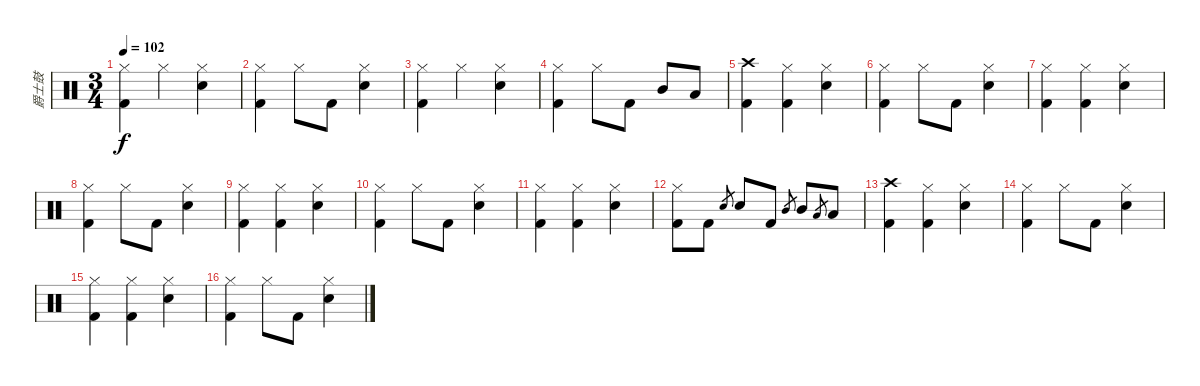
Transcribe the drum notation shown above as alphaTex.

\track ("爵士鼓" "爵士鼓") {instrument percussion}
\staff {score}
\articulation defaults
\ts (3 4)
\tempo 102
\clef neutral
\ks c
("Hi-Hat (closed)" "Kick (hit) 2").4{dy f} "Hi-Hat (closed)".4 ("Hi-Hat (closed)" "Electric Snare (hit)").4 |
("Hi-Hat (closed)" "Kick (hit) 2").4 "Hi-Hat (closed)".8 "Kick (hit) 2".8 ("Hi-Hat (closed)" "Electric Snare (hit)").4 |
("Hi-Hat (closed)" "Kick (hit) 2").4 "Hi-Hat (closed)".4 ("Hi-Hat (closed)" "Electric Snare (hit)").4 |
("Hi-Hat (closed)" "Kick (hit) 2").4 "Hi-Hat (closed)".8 "Kick (hit) 2".8 "Mid Tom (hit)".8 "Low Tom (hit)".8 |
("Crash high (hit)" "Kick (hit) 2").4 ("Hi-Hat (closed)" "Kick (hit) 2").4 ("Hi-Hat (closed)" "Electric Snare (hit)").4 |
("Hi-Hat (closed)" "Kick (hit) 2").4 "Hi-Hat (closed)".8 "Kick (hit) 2".8 ("Hi-Hat (closed)" "Electric Snare (hit)").4 |
("Hi-Hat (closed)" "Kick (hit) 2").4 ("Hi-Hat (closed)" "Kick (hit) 2").4 ("Hi-Hat (closed)" "Electric Snare (hit)").4 |
("Hi-Hat (closed)" "Kick (hit) 2").4 "Hi-Hat (closed)".8 "Kick (hit) 2".8 ("Hi-Hat (closed)" "Electric Snare (hit)").4 |
("Hi-Hat (closed)" "Kick (hit) 2").4 ("Hi-Hat (closed)" "Kick (hit) 2").4 ("Hi-Hat (closed)" "Electric Snare (hit)").4 |
("Hi-Hat (closed)" "Kick (hit) 2").4 "Hi-Hat (closed)".8 "Kick (hit) 2".8 ("Hi-Hat (closed)" "Electric Snare (hit)").4 |
("Hi-Hat (closed)" "Kick (hit) 2").4 ("Hi-Hat (closed)" "Kick (hit) 2").4 ("Hi-Hat (closed)" "Electric Snare (hit)").4 |
("Hi-Hat (closed)" "Kick (hit) 2").8 "Kick (hit) 2".8 "Electric Snare (hit)".8{gr} "Electric Snare (hit)".8 "Kick (hit) 2".8 "Mid Tom (hit)".8{gr} "Mid Tom (hit)".8 "Low Tom (hit)".8{gr} "Low Tom (hit)".8 |
("Crash high (hit)" "Kick (hit) 2").4 ("Hi-Hat (closed)" "Kick (hit) 2").4 ("Hi-Hat (closed)" "Electric Snare (hit)").4 |
("Hi-Hat (closed)" "Kick (hit) 2").4 "Hi-Hat (closed)".8 "Kick (hit) 2".8 ("Hi-Hat (closed)" "Electric Snare (hit)").4 |
("Hi-Hat (closed)" "Kick (hit) 2").4 ("Hi-Hat (closed)" "Kick (hit) 2").4 ("Hi-Hat (closed)" "Electric Snare (hit)").4 |
("Hi-Hat (closed)" "Kick (hit) 2").4 "Hi-Hat (closed)".8 "Kick (hit) 2".8 ("Hi-Hat (closed)" "Electric Snare (hit)").4
